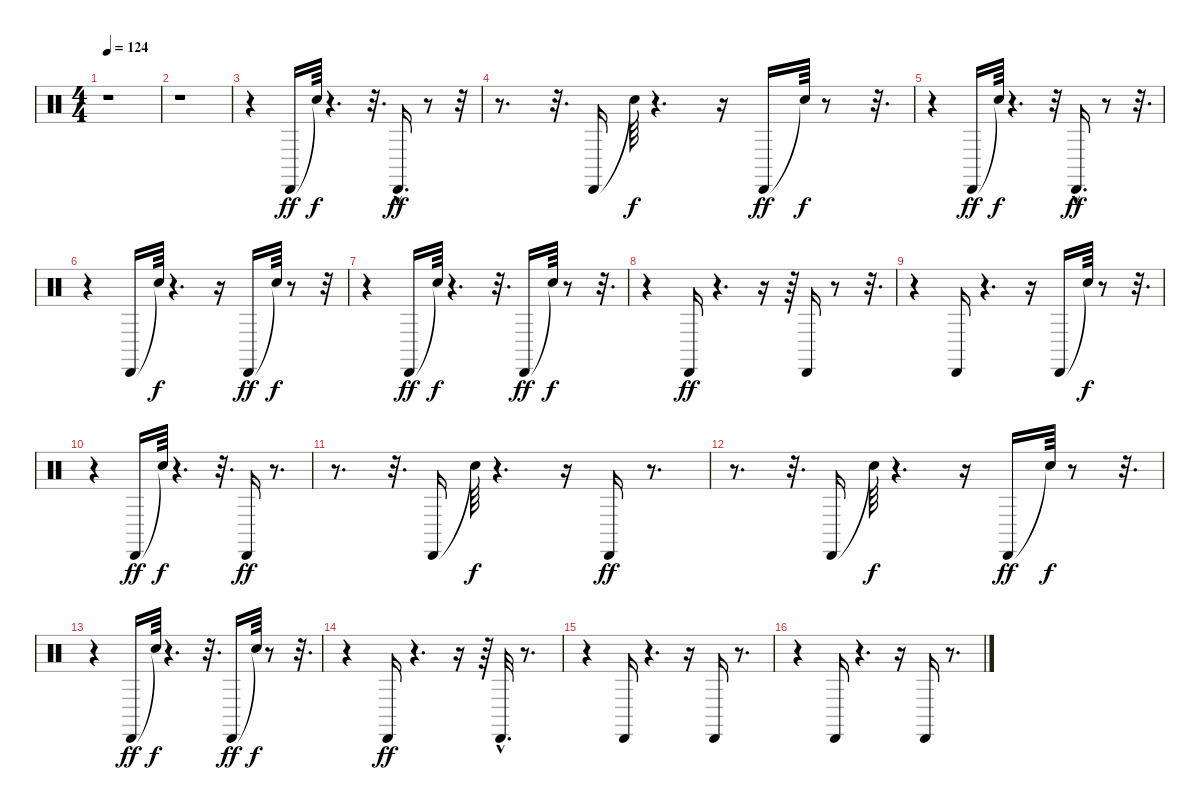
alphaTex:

\track "" {instrument percussion}
\staff {score}
\articulation defaults
\ts (4 4)
\tempo 124
\clef neutral
\ks c
r.1{dy ff} |
r.1 |
r.4 "Cabasa (hit)".16 "Snare (hit)"{t}.64{dy f} r.4{d} r.32{d} "Cabasa (hit)"{hac}.16{d dy ff} r.8 r.32 |
r.8{d} r.32{d} "Cabasa (hit)".16 "Snare (hit)"{t}.64{dy f} r.4{d} r.16 "Cabasa (hit)".16{dy ff} "Snare (hit)"{t}.64{dy f} r.8 r.32{d} |
r.4 "Cabasa (hit)".16{dy ff} "Snare (hit)"{t}.64{dy f} r.4{d} r.32 "Cabasa (hit)"{hac}.16{d dy ff} r.8 r.32{d} |
r.4 "Cabasa (hit)".16 "Snare (hit)"{t}.64{dy f} r.4{d} r.16 "Cabasa (hit)".16{dy ff} "Snare (hit)"{t}.64{dy f} r.8 r.32 |
r.4 "Cabasa (hit)".16{dy ff} "Snare (hit)"{t}.64{dy f} r.4{d} r.32{d} "Cabasa (hit)".16{dy ff} "Snare (hit)"{t}.64{dy f} r.8 r.32{d} |
r.4 "Cabasa (hit)".16{dy ff} r.4{d} r.16 r.64 "Cabasa (hit)".16 r.8 r.32{d} |
r.4 "Cabasa (hit)".16 r.4{d} r.16 "Cabasa (hit)".16 "Snare (hit)"{t}.64{dy f} r.8 r.32{d} |
r.4 "Cabasa (hit)".16{dy ff} "Snare (hit)"{t}.64{dy f} r.4{d} r.32{d} "Cabasa (hit)".16{dy ff} r.8{d} |
r.8{d} r.32{d} "Cabasa (hit)".16 "Snare (hit)"{t}.64{dy f} r.4{d} r.16 "Cabasa (hit)".16{dy ff} r.8{d} |
r.8{d} r.32{d} "Cabasa (hit)".16 "Snare (hit)"{t}.64{dy f} r.4{d} r.16 "Cabasa (hit)".16{dy ff} "Snare (hit)"{t}.64{dy f} r.8 r.32{d} |
r.4 "Cabasa (hit)".16{dy ff} "Snare (hit)"{t}.64{dy f} r.4{d} r.32{d} "Cabasa (hit)".16{dy ff} "Snare (hit)"{t}.64{dy f} r.8 r.32{d} |
r.4 "Cabasa (hit)".16{dy ff} r.4{d} r.16 r.64 "Cabasa (hit)"{hac}.32{d} r.8{d} |
r.4 "Cabasa (hit)".16 r.4{d} r.16 "Cabasa (hit)".16 r.8{d} |
r.4 "Cabasa (hit)".16 r.4{d} r.16 "Cabasa (hit)".16 r.8{d}
